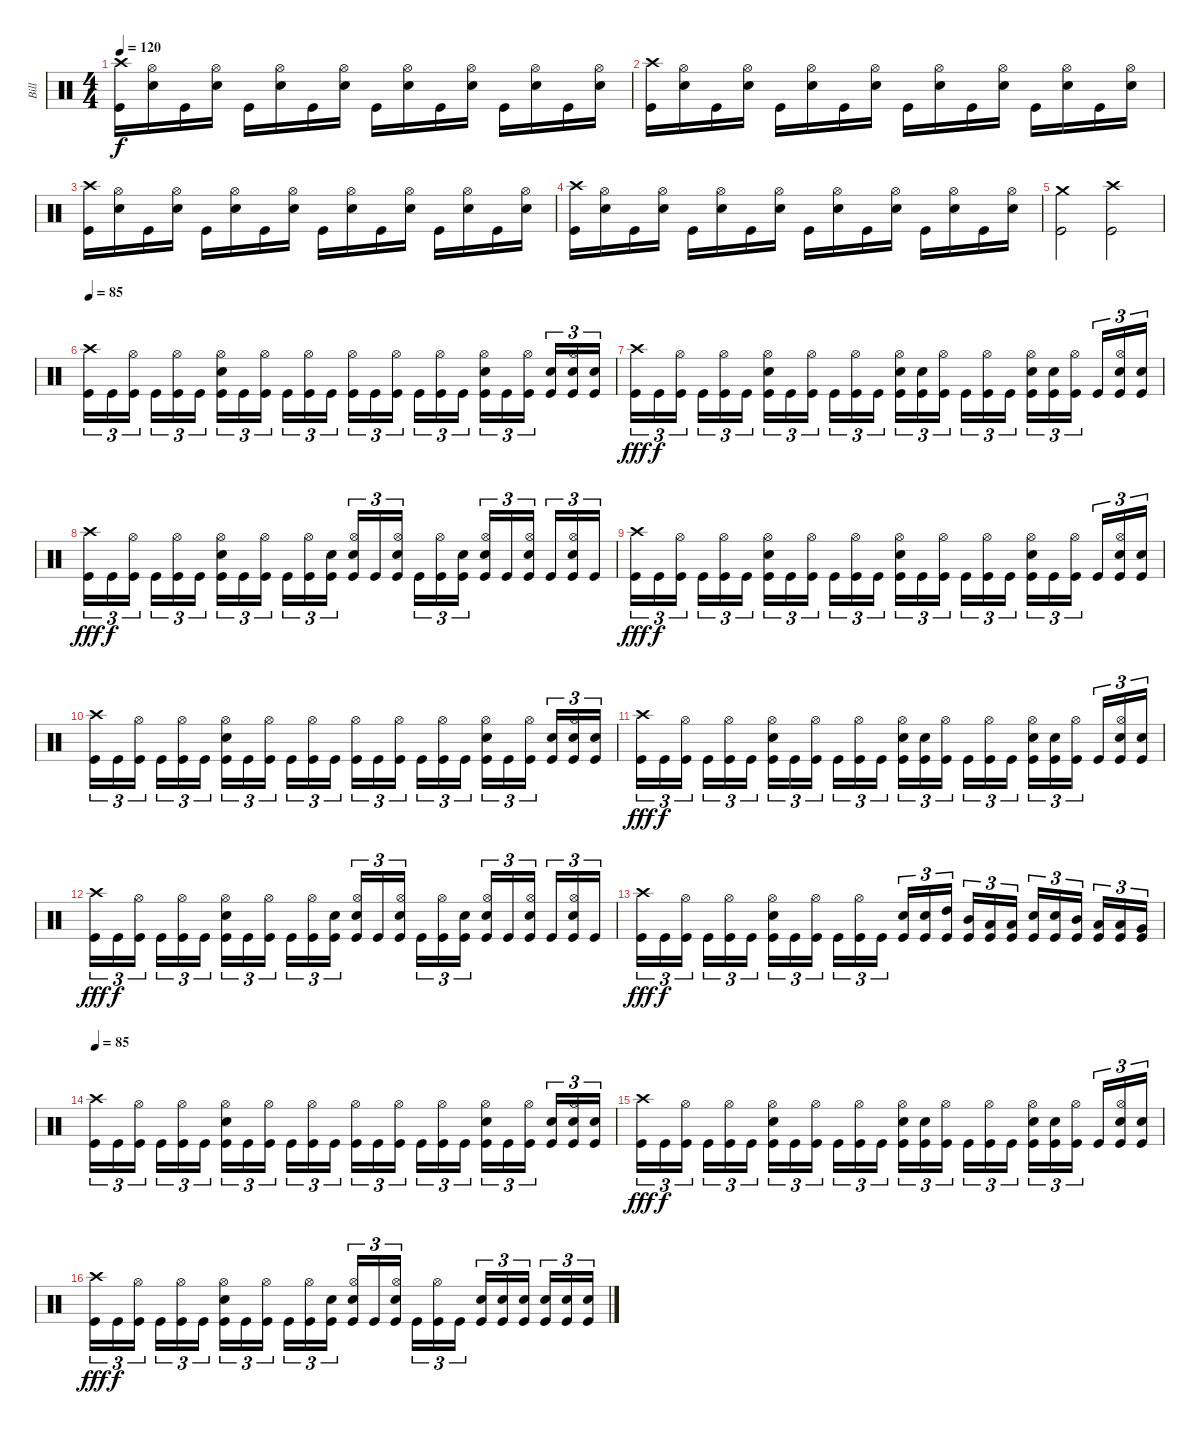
\track ("Bill" "Bill") {instrument percussion}
\staff {score}
\articulation defaults
\ts (4 4)
\tempo 120
\clef neutral
\ks c
("Crash high (hit)" "Kick (hit)").16{dy f} ("Hi-Hat (open)" "Snare (hit) 2").16 "Kick (hit)".16 ("Hi-Hat (open)" "Snare (hit) 2").16 "Kick (hit)".16 ("Hi-Hat (open)" "Snare (hit) 2").16 "Kick (hit)".16 ("Hi-Hat (open)" "Snare (hit) 2").16 "Kick (hit)".16 ("Hi-Hat (open)" "Snare (hit) 2").16 "Kick (hit)".16 ("Hi-Hat (open)" "Snare (hit) 2").16 "Kick (hit)".16 ("Hi-Hat (open)" "Snare (hit) 2").16 "Kick (hit)".16 ("Hi-Hat (open)" "Snare (hit) 2").16 |
("Crash high (hit)" "Kick (hit)").16 ("Hi-Hat (open)" "Snare (hit) 2").16 "Kick (hit)".16 ("Hi-Hat (open)" "Snare (hit) 2").16 "Kick (hit)".16 ("Hi-Hat (open)" "Snare (hit) 2").16 "Kick (hit)".16 ("Hi-Hat (open)" "Snare (hit) 2").16 "Kick (hit)".16 ("Hi-Hat (open)" "Snare (hit) 2").16 "Kick (hit)".16 ("Hi-Hat (open)" "Snare (hit) 2").16 "Kick (hit)".16 ("Hi-Hat (open)" "Snare (hit) 2").16 "Kick (hit)".16 ("Hi-Hat (open)" "Snare (hit) 2").16 |
("Crash high (hit)" "Kick (hit)").16 ("Hi-Hat (open)" "Snare (hit) 2").16 "Kick (hit)".16 ("Hi-Hat (open)" "Snare (hit) 2").16 "Kick (hit)".16 ("Hi-Hat (open)" "Snare (hit) 2").16 "Kick (hit)".16 ("Hi-Hat (open)" "Snare (hit) 2").16 "Kick (hit)".16 ("Hi-Hat (open)" "Snare (hit) 2").16 "Kick (hit)".16 ("Hi-Hat (open)" "Snare (hit) 2").16 "Kick (hit)".16 ("Hi-Hat (open)" "Snare (hit) 2").16 "Kick (hit)".16 ("Hi-Hat (open)" "Snare (hit) 2").16 |
("Crash high (hit)" "Kick (hit)").16 ("Hi-Hat (open)" "Snare (hit) 2").16 "Kick (hit)".16 ("Hi-Hat (open)" "Snare (hit) 2").16 "Kick (hit)".16 ("Hi-Hat (open)" "Snare (hit) 2").16 "Kick (hit)".16 ("Hi-Hat (open)" "Snare (hit) 2").16 "Kick (hit)".16 ("Hi-Hat (open)" "Snare (hit) 2").16 "Kick (hit)".16 ("Hi-Hat (open)" "Snare (hit) 2").16 "Kick (hit)".16 ("Hi-Hat (open)" "Snare (hit) 2").16 "Kick (hit)".16 ("Hi-Hat (open)" "Snare (hit) 2").16 |
("Crash medium (hit)" "Kick (hit)").2 ("Crash high (hit)" "Kick (hit)").2 |
\tempo 85
("Crash high (hit)" "Kick (hit)").16{tu (3 2)} "Kick (hit)".16{tu (3 2)} ("Hi-Hat (open)" "Kick (hit)").16{tu (3 2)} "Kick (hit)".16{tu (3 2)} ("Hi-Hat (open)" "Kick (hit)").16{tu (3 2)} "Kick (hit)".16{tu (3 2)} ("Snare (hit) 2" "Hi-Hat (open)" "Kick (hit)").16{tu (3 2)} "Kick (hit)".16{tu (3 2)} ("Hi-Hat (open)" "Kick (hit)").16{tu (3 2)} "Kick (hit)".16{tu (3 2)} ("Hi-Hat (open)" "Kick (hit)").16{tu (3 2)} "Kick (hit)".16{tu (3 2)} ("Hi-Hat (open)" "Kick (hit)").16{tu (3 2)} "Kick (hit)".16{tu (3 2)} ("Hi-Hat (open)" "Kick (hit)").16{tu (3 2)} "Kick (hit)".16{tu (3 2)} ("Hi-Hat (open)" "Kick (hit)").16{tu (3 2)} "Kick (hit)".16{tu (3 2)} ("Snare (hit) 2" "Hi-Hat (open)" "Kick (hit)").16{tu (3 2)} "Kick (hit)".16{tu (3 2)} ("Hi-Hat (open)" "Kick (hit)").16{tu (3 2)} ("Snare (hit) 2" "Kick (hit)").16{tu (3 2)} ("Snare (hit) 2" "Hi-Hat (open)" "Kick (hit)").16{tu (3 2)} ("Snare (hit) 2" "Kick (hit)").16{tu (3 2)} |
("Crash high (hit)" "Kick (hit)").16{tu (3 2) dy fff} "Kick (hit)".16{tu (3 2) dy f} ("Hi-Hat (open)" "Kick (hit)").16{tu (3 2)} "Kick (hit)".16{tu (3 2)} ("Hi-Hat (open)" "Kick (hit)").16{tu (3 2)} "Kick (hit)".16{tu (3 2)} ("Snare (hit) 2" "Hi-Hat (open)" "Kick (hit)").16{tu (3 2)} "Kick (hit)".16{tu (3 2)} ("Hi-Hat (open)" "Kick (hit)").16{tu (3 2)} "Kick (hit)".16{tu (3 2)} ("Hi-Hat (open)" "Kick (hit)").16{tu (3 2)} "Kick (hit)".16{tu (3 2)} ("Snare (hit) 2" "Hi-Hat (open)" "Kick (hit)").16{tu (3 2)} ("Snare (hit) 2" "Kick (hit)").16{tu (3 2)} ("Hi-Hat (open)" "Kick (hit)").16{tu (3 2)} "Kick (hit)".16{tu (3 2)} ("Hi-Hat (open)" "Kick (hit)").16{tu (3 2)} "Kick (hit)".16{tu (3 2)} ("Snare (hit) 2" "Hi-Hat (open)" "Kick (hit)").16{tu (3 2)} ("Snare (hit) 2" "Kick (hit)").16{tu (3 2)} ("Hi-Hat (open)" "Kick (hit)").16{tu (3 2)} "Kick (hit)".16{tu (3 2)} ("Snare (hit) 2" "Hi-Hat (open)" "Kick (hit)").16{tu (3 2)} ("Snare (hit) 2" "Kick (hit)").16{tu (3 2)} |
("Crash high (hit)" "Kick (hit)").16{tu (3 2) dy fff} "Kick (hit)".16{tu (3 2) dy f} ("Hi-Hat (open)" "Kick (hit)").16{tu (3 2)} "Kick (hit)".16{tu (3 2)} ("Hi-Hat (open)" "Kick (hit)").16{tu (3 2)} "Kick (hit)".16{tu (3 2)} ("Snare (hit) 2" "Hi-Hat (open)" "Kick (hit)").16{tu (3 2)} "Kick (hit)".16{tu (3 2)} ("Hi-Hat (open)" "Kick (hit)").16{tu (3 2)} "Kick (hit)".16{tu (3 2)} ("Hi-Hat (open)" "Kick (hit)").16{tu (3 2)} ("Snare (hit) 2" "Kick (hit)").16{tu (3 2)} ("Snare (hit) 2" "Hi-Hat (open)" "Kick (hit)").16{tu (3 2)} "Kick (hit)".16{tu (3 2)} ("Snare (hit) 2" "Hi-Hat (open)" "Kick (hit)").16{tu (3 2)} "Kick (hit)".16{tu (3 2)} ("Hi-Hat (open)" "Kick (hit)").16{tu (3 2)} ("Snare (hit) 2" "Kick (hit)").16{tu (3 2)} ("Snare (hit) 2" "Hi-Hat (open)" "Kick (hit)").16{tu (3 2)} "Kick (hit)".16{tu (3 2)} ("Snare (hit) 2" "Hi-Hat (open)" "Kick (hit)").16{tu (3 2)} "Kick (hit)".16{tu (3 2)} ("Snare (hit) 2" "Hi-Hat (open)" "Kick (hit)").16{tu (3 2)} "Kick (hit)".16{tu (3 2)} |
("Crash high (hit)" "Kick (hit)").16{tu (3 2) dy fff} "Kick (hit)".16{tu (3 2) dy f} ("Hi-Hat (open)" "Kick (hit)").16{tu (3 2)} "Kick (hit)".16{tu (3 2)} ("Hi-Hat (open)" "Kick (hit)").16{tu (3 2)} "Kick (hit)".16{tu (3 2)} ("Snare (hit) 2" "Hi-Hat (open)" "Kick (hit)").16{tu (3 2)} "Kick (hit)".16{tu (3 2)} ("Hi-Hat (open)" "Kick (hit)").16{tu (3 2)} "Kick (hit)".16{tu (3 2)} ("Hi-Hat (open)" "Kick (hit)").16{tu (3 2)} "Kick (hit)".16{tu (3 2)} ("Snare (hit) 2" "Hi-Hat (open)" "Kick (hit)").16{tu (3 2)} "Kick (hit)".16{tu (3 2)} ("Hi-Hat (open)" "Kick (hit)").16{tu (3 2)} "Kick (hit)".16{tu (3 2)} ("Hi-Hat (open)" "Kick (hit)").16{tu (3 2)} "Kick (hit)".16{tu (3 2)} ("Snare (hit) 2" "Hi-Hat (open)" "Kick (hit)").16{tu (3 2)} "Kick (hit)".16{tu (3 2)} ("Hi-Hat (open)" "Kick (hit)").16{tu (3 2)} "Kick (hit)".16{tu (3 2)} ("Snare (hit) 2" "Hi-Hat (open)" "Kick (hit)").16{tu (3 2)} ("Snare (hit) 2" "Kick (hit)").16{tu (3 2)} |
("Crash high (hit)" "Kick (hit)").16{tu (3 2)} "Kick (hit)".16{tu (3 2)} ("Hi-Hat (open)" "Kick (hit)").16{tu (3 2)} "Kick (hit)".16{tu (3 2)} ("Hi-Hat (open)" "Kick (hit)").16{tu (3 2)} "Kick (hit)".16{tu (3 2)} ("Snare (hit) 2" "Hi-Hat (open)" "Kick (hit)").16{tu (3 2)} "Kick (hit)".16{tu (3 2)} ("Hi-Hat (open)" "Kick (hit)").16{tu (3 2)} "Kick (hit)".16{tu (3 2)} ("Hi-Hat (open)" "Kick (hit)").16{tu (3 2)} "Kick (hit)".16{tu (3 2)} ("Hi-Hat (open)" "Kick (hit)").16{tu (3 2)} "Kick (hit)".16{tu (3 2)} ("Hi-Hat (open)" "Kick (hit)").16{tu (3 2)} "Kick (hit)".16{tu (3 2)} ("Hi-Hat (open)" "Kick (hit)").16{tu (3 2)} "Kick (hit)".16{tu (3 2)} ("Snare (hit) 2" "Hi-Hat (open)" "Kick (hit)").16{tu (3 2)} "Kick (hit)".16{tu (3 2)} ("Hi-Hat (open)" "Kick (hit)").16{tu (3 2)} ("Snare (hit) 2" "Kick (hit)").16{tu (3 2)} ("Snare (hit) 2" "Hi-Hat (open)" "Kick (hit)").16{tu (3 2)} ("Snare (hit) 2" "Kick (hit)").16{tu (3 2)} |
("Crash high (hit)" "Kick (hit)").16{tu (3 2) dy fff} "Kick (hit)".16{tu (3 2) dy f} ("Hi-Hat (open)" "Kick (hit)").16{tu (3 2)} "Kick (hit)".16{tu (3 2)} ("Hi-Hat (open)" "Kick (hit)").16{tu (3 2)} "Kick (hit)".16{tu (3 2)} ("Snare (hit) 2" "Hi-Hat (open)" "Kick (hit)").16{tu (3 2)} "Kick (hit)".16{tu (3 2)} ("Hi-Hat (open)" "Kick (hit)").16{tu (3 2)} "Kick (hit)".16{tu (3 2)} ("Hi-Hat (open)" "Kick (hit)").16{tu (3 2)} "Kick (hit)".16{tu (3 2)} ("Snare (hit) 2" "Hi-Hat (open)" "Kick (hit)").16{tu (3 2)} ("Snare (hit) 2" "Kick (hit)").16{tu (3 2)} ("Hi-Hat (open)" "Kick (hit)").16{tu (3 2)} "Kick (hit)".16{tu (3 2)} ("Hi-Hat (open)" "Kick (hit)").16{tu (3 2)} "Kick (hit)".16{tu (3 2)} ("Snare (hit) 2" "Hi-Hat (open)" "Kick (hit)").16{tu (3 2)} ("Snare (hit) 2" "Kick (hit)").16{tu (3 2)} ("Hi-Hat (open)" "Kick (hit)").16{tu (3 2)} "Kick (hit)".16{tu (3 2)} ("Snare (hit) 2" "Hi-Hat (open)" "Kick (hit)").16{tu (3 2)} ("Snare (hit) 2" "Kick (hit)").16{tu (3 2)} |
("Crash high (hit)" "Kick (hit)").16{tu (3 2) dy fff} "Kick (hit)".16{tu (3 2) dy f} ("Hi-Hat (open)" "Kick (hit)").16{tu (3 2)} "Kick (hit)".16{tu (3 2)} ("Hi-Hat (open)" "Kick (hit)").16{tu (3 2)} "Kick (hit)".16{tu (3 2)} ("Snare (hit) 2" "Hi-Hat (open)" "Kick (hit)").16{tu (3 2)} "Kick (hit)".16{tu (3 2)} ("Hi-Hat (open)" "Kick (hit)").16{tu (3 2)} "Kick (hit)".16{tu (3 2)} ("Hi-Hat (open)" "Kick (hit)").16{tu (3 2)} ("Snare (hit) 2" "Kick (hit)").16{tu (3 2)} ("Snare (hit) 2" "Hi-Hat (open)" "Kick (hit)").16{tu (3 2)} "Kick (hit)".16{tu (3 2)} ("Snare (hit) 2" "Hi-Hat (open)" "Kick (hit)").16{tu (3 2)} "Kick (hit)".16{tu (3 2)} ("Hi-Hat (open)" "Kick (hit)").16{tu (3 2)} ("Snare (hit) 2" "Kick (hit)").16{tu (3 2)} ("Snare (hit) 2" "Hi-Hat (open)" "Kick (hit)").16{tu (3 2)} "Kick (hit)".16{tu (3 2)} ("Snare (hit) 2" "Hi-Hat (open)" "Kick (hit)").16{tu (3 2)} "Kick (hit)".16{tu (3 2)} ("Snare (hit) 2" "Hi-Hat (open)" "Kick (hit)").16{tu (3 2)} "Kick (hit)".16{tu (3 2)} |
("Crash high (hit)" "Kick (hit)").16{tu (3 2) dy fff} "Kick (hit)".16{tu (3 2) dy f} ("Hi-Hat (open)" "Kick (hit)").16{tu (3 2)} "Kick (hit)".16{tu (3 2)} ("Hi-Hat (open)" "Kick (hit)").16{tu (3 2)} "Kick (hit)".16{tu (3 2)} ("Snare (hit) 2" "Hi-Hat (open)" "Kick (hit)").16{tu (3 2)} "Kick (hit)".16{tu (3 2)} ("Hi-Hat (open)" "Kick (hit)").16{tu (3 2)} "Kick (hit)".16{tu (3 2)} ("Hi-Hat (open)" "Kick (hit)").16{tu (3 2)} "Kick (hit)".16{tu (3 2)} ("Snare (hit) 2" "Kick (hit)").16{tu (3 2)} ("Snare (hit) 2" "Kick (hit)").16{tu (3 2)} ("High Tom (hit)" "Kick (hit)").16{tu (3 2)} ("Mid Tom (hit)" "Kick (hit)").16{tu (3 2)} ("Low Tom (hit)" "Kick (hit)").16{tu (3 2)} ("Low Floor Tom (hit)" "Kick (hit)").16{tu (3 2)} ("Snare (hit) 2" "Kick (hit)").16{tu (3 2)} ("Snare (hit) 2" "Kick (hit)").16{tu (3 2)} ("Mid Tom (hit)" "Kick (hit)").16{tu (3 2)} ("Low Tom (hit)" "Kick (hit)").16{tu (3 2)} ("Low Floor Tom (hit)" "Kick (hit)").16{tu (3 2)} ("Very Low Tom (hit)" "Kick (hit)").16{tu (3 2)} |
\tempo 85
("Crash high (hit)" "Kick (hit)").16{tu (3 2)} "Kick (hit)".16{tu (3 2)} ("Hi-Hat (open)" "Kick (hit)").16{tu (3 2)} "Kick (hit)".16{tu (3 2)} ("Hi-Hat (open)" "Kick (hit)").16{tu (3 2)} "Kick (hit)".16{tu (3 2)} ("Snare (hit) 2" "Hi-Hat (open)" "Kick (hit)").16{tu (3 2)} "Kick (hit)".16{tu (3 2)} ("Hi-Hat (open)" "Kick (hit)").16{tu (3 2)} "Kick (hit)".16{tu (3 2)} ("Hi-Hat (open)" "Kick (hit)").16{tu (3 2)} "Kick (hit)".16{tu (3 2)} ("Hi-Hat (open)" "Kick (hit)").16{tu (3 2)} "Kick (hit)".16{tu (3 2)} ("Hi-Hat (open)" "Kick (hit)").16{tu (3 2)} "Kick (hit)".16{tu (3 2)} ("Hi-Hat (open)" "Kick (hit)").16{tu (3 2)} "Kick (hit)".16{tu (3 2)} ("Snare (hit) 2" "Hi-Hat (open)" "Kick (hit)").16{tu (3 2)} "Kick (hit)".16{tu (3 2)} ("Hi-Hat (open)" "Kick (hit)").16{tu (3 2)} ("Snare (hit) 2" "Kick (hit)").16{tu (3 2)} ("Snare (hit) 2" "Hi-Hat (open)" "Kick (hit)").16{tu (3 2)} ("Snare (hit) 2" "Kick (hit)").16{tu (3 2)} |
("Crash high (hit)" "Kick (hit)").16{tu (3 2) dy fff} "Kick (hit)".16{tu (3 2) dy f} ("Hi-Hat (open)" "Kick (hit)").16{tu (3 2)} "Kick (hit)".16{tu (3 2)} ("Hi-Hat (open)" "Kick (hit)").16{tu (3 2)} "Kick (hit)".16{tu (3 2)} ("Snare (hit) 2" "Hi-Hat (open)" "Kick (hit)").16{tu (3 2)} "Kick (hit)".16{tu (3 2)} ("Hi-Hat (open)" "Kick (hit)").16{tu (3 2)} "Kick (hit)".16{tu (3 2)} ("Hi-Hat (open)" "Kick (hit)").16{tu (3 2)} "Kick (hit)".16{tu (3 2)} ("Snare (hit) 2" "Hi-Hat (open)" "Kick (hit)").16{tu (3 2)} ("Snare (hit) 2" "Kick (hit)").16{tu (3 2)} ("Hi-Hat (open)" "Kick (hit)").16{tu (3 2)} "Kick (hit)".16{tu (3 2)} ("Hi-Hat (open)" "Kick (hit)").16{tu (3 2)} "Kick (hit)".16{tu (3 2)} ("Snare (hit) 2" "Hi-Hat (open)" "Kick (hit)").16{tu (3 2)} ("Snare (hit) 2" "Kick (hit)").16{tu (3 2)} ("Hi-Hat (open)" "Kick (hit)").16{tu (3 2)} "Kick (hit)".16{tu (3 2)} ("Snare (hit) 2" "Hi-Hat (open)" "Kick (hit)").16{tu (3 2)} ("Snare (hit) 2" "Kick (hit)").16{tu (3 2)} |
("Crash high (hit)" "Kick (hit)").16{tu (3 2) dy fff} "Kick (hit)".16{tu (3 2) dy f} ("Hi-Hat (open)" "Kick (hit)").16{tu (3 2)} "Kick (hit)".16{tu (3 2)} ("Hi-Hat (open)" "Kick (hit)").16{tu (3 2)} "Kick (hit)".16{tu (3 2)} ("Snare (hit) 2" "Hi-Hat (open)" "Kick (hit)").16{tu (3 2)} "Kick (hit)".16{tu (3 2)} ("Hi-Hat (open)" "Kick (hit)").16{tu (3 2)} "Kick (hit)".16{tu (3 2)} ("Hi-Hat (open)" "Kick (hit)").16{tu (3 2)} ("Snare (hit) 2" "Kick (hit)").16{tu (3 2)} ("Snare (hit) 2" "Hi-Hat (open)" "Kick (hit)").16{tu (3 2)} "Kick (hit)".16{tu (3 2)} ("Snare (hit) 2" "Hi-Hat (open)" "Kick (hit)").16{tu (3 2)} "Kick (hit)".16{tu (3 2)} ("Hi-Hat (open)" "Kick (hit)").16{tu (3 2)} "Kick (hit)".16{tu (3 2)} ("Snare (hit) 2" "Kick (hit)").16{tu (3 2)} ("Snare (hit) 2" "Kick (hit)").16{tu (3 2)} ("Snare (hit) 2" "Kick (hit)").16{tu (3 2)} ("Snare (hit) 2" "Kick (hit)").16{tu (3 2)} ("Snare (hit) 2" "Kick (hit)").16{tu (3 2)} ("Snare (hit) 2" "Kick (hit)").16{tu (3 2)}
